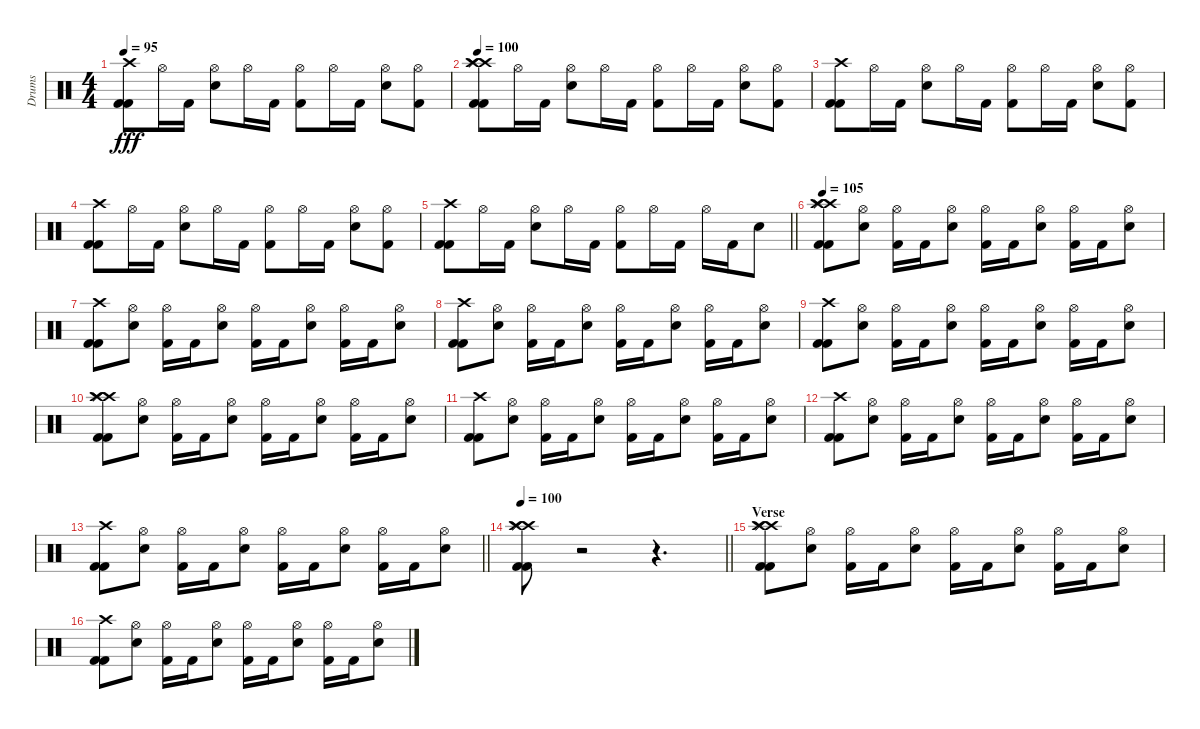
\track ("Drums" "Drums") {instrument percussion}
\staff {score}
\articulation defaults
\ts (4 4)
\tempo 95
\clef neutral
\ks c
("Crash high (hit)" "Kick (hit) 2" "Kick (hit) 2").8{dy fff} "Hi-Hat (open)".16 "Kick (hit) 2".16 ("Hi-Hat (open)" "Electric Snare (hit)").8 "Hi-Hat (open)".16 "Kick (hit) 2".16 ("Hi-Hat (open)" "Kick (hit) 2").8 "Hi-Hat (open)".16 "Kick (hit) 2".16 ("Hi-Hat (open)" "Electric Snare (hit)").8 ("Hi-Hat (open)" "Kick (hit) 2").8 |
\tempo 100
("Crash high (hit)" "Crash high (hit)" "Splash (hit)" "Splash (hit)" "Kick (hit) 2" "Kick (hit) 2").8 "Hi-Hat (open)".16 "Kick (hit) 2".16 ("Hi-Hat (open)" "Electric Snare (hit)").8 "Hi-Hat (open)".16 "Kick (hit) 2".16 ("Hi-Hat (open)" "Kick (hit) 2").8 "Hi-Hat (open)".16 "Kick (hit) 2".16 ("Hi-Hat (open)" "Electric Snare (hit)").8 ("Hi-Hat (open)" "Kick (hit) 2").8 |
("Crash high (hit)" "Kick (hit) 2" "Kick (hit) 2").8 "Hi-Hat (open)".16 "Kick (hit) 2".16 ("Hi-Hat (open)" "Electric Snare (hit)").8 "Hi-Hat (open)".16 "Kick (hit) 2".16 ("Hi-Hat (open)" "Kick (hit) 2").8 "Hi-Hat (open)".16 "Kick (hit) 2".16 ("Hi-Hat (open)" "Electric Snare (hit)").8 ("Hi-Hat (open)" "Kick (hit) 2").8 |
("Crash high (hit)" "Kick (hit) 2" "Kick (hit) 2").8 "Hi-Hat (open)".16 "Kick (hit) 2".16 ("Hi-Hat (open)" "Electric Snare (hit)").8 "Hi-Hat (open)".16 "Kick (hit) 2".16 ("Hi-Hat (open)" "Kick (hit) 2").8 "Hi-Hat (open)".16 "Kick (hit) 2".16 ("Hi-Hat (open)" "Electric Snare (hit)").8 ("Hi-Hat (open)" "Kick (hit) 2").8 |
\barLineRight lightlight
("Crash high (hit)" "Kick (hit) 2" "Kick (hit) 2").8 "Hi-Hat (open)".16 "Kick (hit) 2".16 ("Hi-Hat (open)" "Electric Snare (hit)").8 "Hi-Hat (open)".16 "Kick (hit) 2".16 ("Hi-Hat (open)" "Kick (hit) 2").8 "Hi-Hat (open)".16 "Kick (hit) 2".16 "Hi-Hat (open)".16 "Kick (hit) 2".16 "Electric Snare (hit)".8 |
\tempo 105
("Crash high (hit)" "Crash high (hit)" "Splash (hit)" "Splash (hit)" "Kick (hit) 2" "Kick (hit) 2").8 ("Hi-Hat (open)" "Electric Snare (hit)").8 ("Hi-Hat (open)" "Kick (hit) 2").16 "Kick (hit) 2".16 ("Hi-Hat (open)" "Electric Snare (hit)").8 ("Hi-Hat (open)" "Kick (hit) 2").16 "Kick (hit) 2".16 ("Hi-Hat (open)" "Electric Snare (hit)").8 ("Hi-Hat (open)" "Kick (hit) 2").16 "Kick (hit) 2".16 ("Hi-Hat (open)" "Electric Snare (hit)").8 |
("Crash high (hit)" "Kick (hit) 2" "Kick (hit) 2").8 ("Hi-Hat (open)" "Electric Snare (hit)").8 ("Hi-Hat (open)" "Kick (hit) 2").16 "Kick (hit) 2".16 ("Hi-Hat (open)" "Electric Snare (hit)").8 ("Hi-Hat (open)" "Kick (hit) 2").16 "Kick (hit) 2".16 ("Hi-Hat (open)" "Electric Snare (hit)").8 ("Hi-Hat (open)" "Kick (hit) 2").16 "Kick (hit) 2".16 ("Hi-Hat (open)" "Electric Snare (hit)").8 |
("Crash high (hit)" "Kick (hit) 2" "Kick (hit) 2").8 ("Hi-Hat (open)" "Electric Snare (hit)").8 ("Hi-Hat (open)" "Kick (hit) 2").16 "Kick (hit) 2".16 ("Hi-Hat (open)" "Electric Snare (hit)").8 ("Hi-Hat (open)" "Kick (hit) 2").16 "Kick (hit) 2".16 ("Hi-Hat (open)" "Electric Snare (hit)").8 ("Hi-Hat (open)" "Kick (hit) 2").16 "Kick (hit) 2".16 ("Hi-Hat (open)" "Electric Snare (hit)").8 |
("Crash high (hit)" "Kick (hit) 2" "Kick (hit) 2").8 ("Hi-Hat (open)" "Electric Snare (hit)").8 ("Hi-Hat (open)" "Kick (hit) 2").16 "Kick (hit) 2".16 ("Hi-Hat (open)" "Electric Snare (hit)").8 ("Hi-Hat (open)" "Kick (hit) 2").16 "Kick (hit) 2".16 ("Hi-Hat (open)" "Electric Snare (hit)").8 ("Hi-Hat (open)" "Kick (hit) 2").16 "Kick (hit) 2".16 ("Hi-Hat (open)" "Electric Snare (hit)").8 |
("Crash high (hit)" "Crash high (hit)" "Splash (hit)" "Splash (hit)" "Kick (hit) 2" "Kick (hit) 2").8 ("Hi-Hat (open)" "Electric Snare (hit)").8 ("Hi-Hat (open)" "Kick (hit) 2").16 "Kick (hit) 2".16 ("Hi-Hat (open)" "Electric Snare (hit)").8 ("Hi-Hat (open)" "Kick (hit) 2").16 "Kick (hit) 2".16 ("Hi-Hat (open)" "Electric Snare (hit)").8 ("Hi-Hat (open)" "Kick (hit) 2").16 "Kick (hit) 2".16 ("Hi-Hat (open)" "Electric Snare (hit)").8 |
("Crash high (hit)" "Kick (hit) 2" "Kick (hit) 2").8 ("Hi-Hat (open)" "Electric Snare (hit)").8 ("Hi-Hat (open)" "Kick (hit) 2").16 "Kick (hit) 2".16 ("Hi-Hat (open)" "Electric Snare (hit)").8 ("Hi-Hat (open)" "Kick (hit) 2").16 "Kick (hit) 2".16 ("Hi-Hat (open)" "Electric Snare (hit)").8 ("Hi-Hat (open)" "Kick (hit) 2").16 "Kick (hit) 2".16 ("Hi-Hat (open)" "Electric Snare (hit)").8 |
("Crash high (hit)" "Kick (hit) 2" "Kick (hit) 2").8 ("Hi-Hat (open)" "Electric Snare (hit)").8 ("Hi-Hat (open)" "Kick (hit) 2").16 "Kick (hit) 2".16 ("Hi-Hat (open)" "Electric Snare (hit)").8 ("Hi-Hat (open)" "Kick (hit) 2").16 "Kick (hit) 2".16 ("Hi-Hat (open)" "Electric Snare (hit)").8 ("Hi-Hat (open)" "Kick (hit) 2").16 "Kick (hit) 2".16 ("Hi-Hat (open)" "Electric Snare (hit)").8 |
\barLineRight lightlight
("Crash high (hit)" "Kick (hit) 2" "Kick (hit) 2").8 ("Hi-Hat (open)" "Electric Snare (hit)").8 ("Hi-Hat (open)" "Kick (hit) 2").16 "Kick (hit) 2".16 ("Hi-Hat (open)" "Electric Snare (hit)").8 ("Hi-Hat (open)" "Kick (hit) 2").16 "Kick (hit) 2".16 ("Hi-Hat (open)" "Electric Snare (hit)").8 ("Hi-Hat (open)" "Kick (hit) 2").16 "Kick (hit) 2".16 ("Hi-Hat (open)" "Electric Snare (hit)").8 |
\tempo 100
\barLineRight lightlight
("Crash high (hit)" "Crash high (hit)" "Splash (hit)" "Splash (hit)" "Kick (hit) 2" "Kick (hit) 2").8 r.2{volume 0} r.4{d} |
\section ("" "Verse")
("Crash high (hit)" "Crash high (hit)" "Splash (hit)" "Splash (hit)" "Kick (hit) 2" "Kick (hit) 2").8{volume 16} ("Hi-Hat (open)" "Electric Snare (hit)").8 ("Hi-Hat (open)" "Kick (hit) 2").16 "Kick (hit) 2".16 ("Hi-Hat (open)" "Electric Snare (hit)").8 ("Hi-Hat (open)" "Kick (hit) 2").16 "Kick (hit) 2".16 ("Hi-Hat (open)" "Electric Snare (hit)").8 ("Hi-Hat (open)" "Kick (hit) 2").16 "Kick (hit) 2".16 ("Hi-Hat (open)" "Electric Snare (hit)").8 |
("Crash high (hit)" "Kick (hit) 2" "Kick (hit) 2").8 ("Hi-Hat (open)" "Electric Snare (hit)").8 ("Hi-Hat (open)" "Kick (hit) 2").16 "Kick (hit) 2".16 ("Hi-Hat (open)" "Electric Snare (hit)").8 ("Hi-Hat (open)" "Kick (hit) 2").16 "Kick (hit) 2".16 ("Hi-Hat (open)" "Electric Snare (hit)").8 ("Hi-Hat (open)" "Kick (hit) 2").16 "Kick (hit) 2".16 ("Hi-Hat (open)" "Electric Snare (hit)").8
